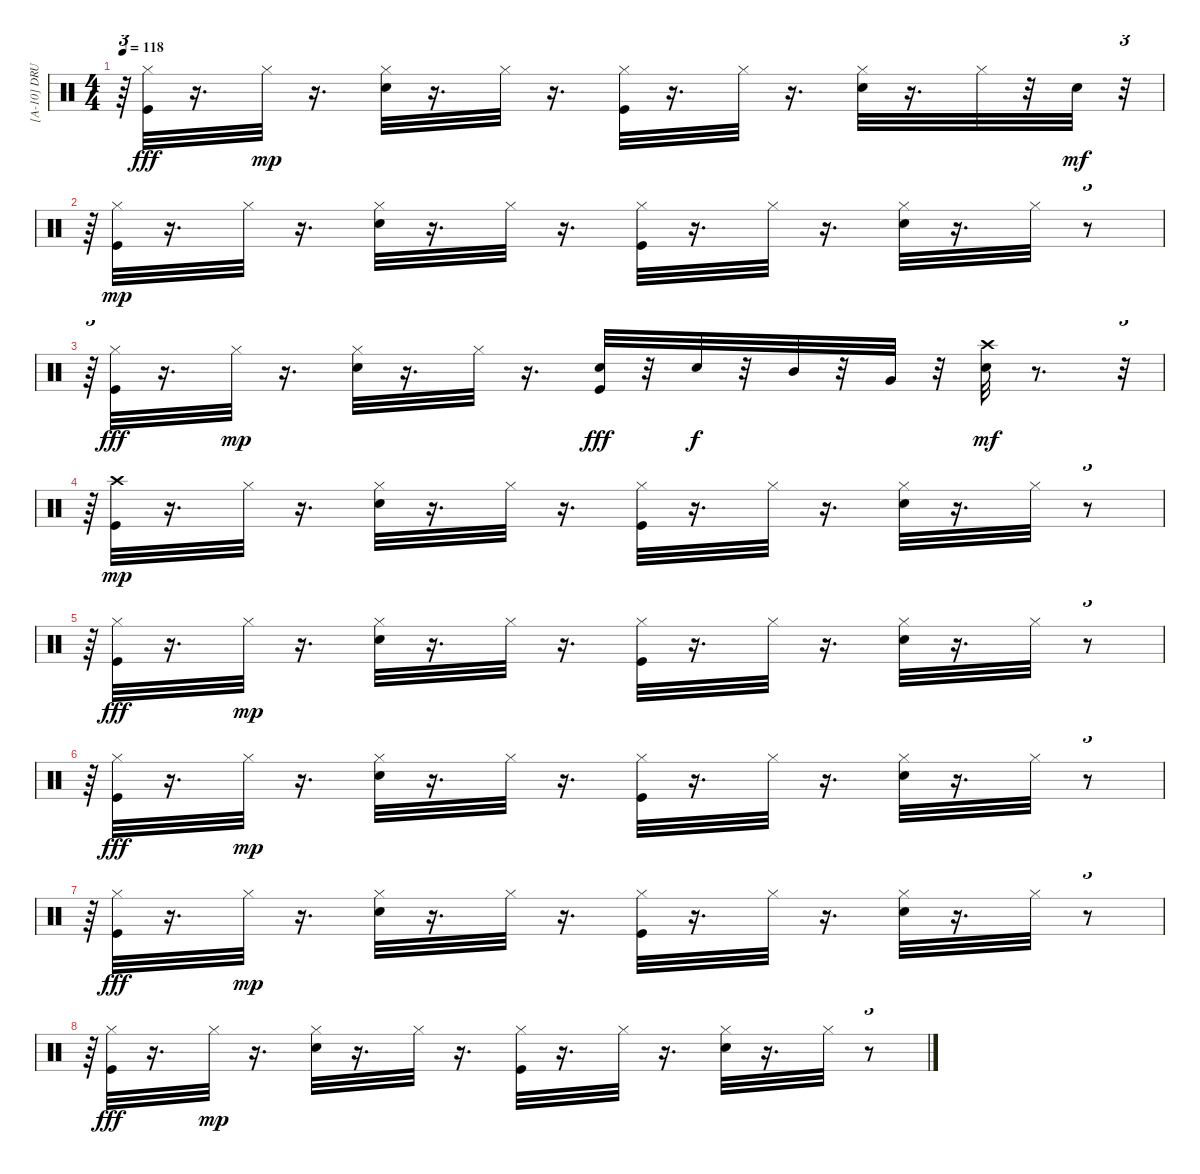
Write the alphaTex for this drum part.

\track ("[A-10] DRUM" "[A-10] DRU") {instrument percussion}
\staff {score}
\articulation defaults
\ts (4 4)
\tempo 118
\clef neutral
\ks c
r.64{tu (3 2) dy mp} ("Hi-Hat (closed)" "Kick (hit)").32{dy fff} r.16{d} "Hi-Hat (closed)".32{dy mp} r.16{d} ("Snare (hit) 2" "Hi-Hat (closed)").32 r.16{d} "Hi-Hat (closed)".32 r.16{d} ("Kick (hit)" "Hi-Hat (closed)").32 r.16{d} "Hi-Hat (closed)".32 r.16{d} ("Snare (hit) 2" "Hi-Hat (closed)").32 r.16{d} "Hi-Hat (closed)".32 r.32 "Snare (hit) 2".32{dy mf} r.32{tu (3 2)} |
r.64{tu (3 2)} ("Kick (hit)" "Hi-Hat (closed)").32{dy mp} r.16{d} "Hi-Hat (closed)".32 r.16{d} ("Snare (hit) 2" "Hi-Hat (closed)").32 r.16{d} "Hi-Hat (closed)".32 r.16{d} ("Kick (hit)" "Hi-Hat (closed)").32 r.16{d} "Hi-Hat (closed)".32 r.16{d} ("Snare (hit) 2" "Hi-Hat (closed)").32 r.16{d} "Hi-Hat (closed)".32 r.8{tu (3 2)} |
r.64{tu (3 2)} ("Hi-Hat (closed)" "Kick (hit)").32{dy fff} r.16{d} "Hi-Hat (closed)".32{dy mp} r.16{d} ("Snare (hit) 2" "Hi-Hat (closed)").32 r.16{d} "Hi-Hat (closed)".32 r.16{d} ("Snare (hit) 2" "Kick (hit)").32{dy fff} r.32 "Snare (hit) 2".32{dy f} r.32 "Mid Tom (hit)".32 r.32 "Very Low Tom (hit)".32 r.32 ("Snare (hit) 2" "Crash high (hit)").32{dy mf} r.8{d} r.32{tu (3 2)} |
r.64{tu (3 2)} ("Kick (hit)" "Crash high (hit)").32{dy mp} r.16{d} "Hi-Hat (closed)".32 r.16{d} ("Snare (hit) 2" "Hi-Hat (closed)").32 r.16{d} "Hi-Hat (closed)".32 r.16{d} ("Kick (hit)" "Hi-Hat (closed)").32 r.16{d} "Hi-Hat (closed)".32 r.16{d} ("Snare (hit) 2" "Hi-Hat (closed)").32 r.16{d} "Hi-Hat (closed)".32 r.8{tu (3 2)} |
r.64{tu (3 2)} ("Hi-Hat (closed)" "Kick (hit)").32{dy fff} r.16{d} "Hi-Hat (closed)".32{dy mp} r.16{d} ("Snare (hit) 2" "Hi-Hat (closed)").32 r.16{d} "Hi-Hat (closed)".32 r.16{d} ("Kick (hit)" "Hi-Hat (closed)").32 r.16{d} "Hi-Hat (closed)".32 r.16{d} ("Snare (hit) 2" "Hi-Hat (closed)").32 r.16{d} "Hi-Hat (closed)".32 r.8{tu (3 2)} |
r.64{tu (3 2)} ("Hi-Hat (closed)" "Kick (hit)").32{dy fff} r.16{d} "Hi-Hat (closed)".32{dy mp} r.16{d} ("Snare (hit) 2" "Hi-Hat (closed)").32 r.16{d} "Hi-Hat (closed)".32 r.16{d} ("Kick (hit)" "Hi-Hat (closed)").32 r.16{d} "Hi-Hat (closed)".32 r.16{d} ("Snare (hit) 2" "Hi-Hat (closed)").32 r.16{d} "Hi-Hat (closed)".32 r.8{tu (3 2)} |
r.64{tu (3 2)} ("Hi-Hat (closed)" "Kick (hit)").32{dy fff} r.16{d} "Hi-Hat (closed)".32{dy mp} r.16{d} ("Snare (hit) 2" "Hi-Hat (closed)").32 r.16{d} "Hi-Hat (closed)".32 r.16{d} ("Kick (hit)" "Hi-Hat (closed)").32 r.16{d} "Hi-Hat (closed)".32 r.16{d} ("Snare (hit) 2" "Hi-Hat (closed)").32 r.16{d} "Hi-Hat (closed)".32 r.8{tu (3 2)} |
r.64{tu (3 2)} ("Hi-Hat (closed)" "Kick (hit)").32{dy fff} r.16{d} "Hi-Hat (closed)".32{dy mp} r.16{d} ("Snare (hit) 2" "Hi-Hat (closed)").32 r.16{d} "Hi-Hat (closed)".32 r.16{d} ("Kick (hit)" "Hi-Hat (closed)").32 r.16{d} "Hi-Hat (closed)".32 r.16{d} ("Snare (hit) 2" "Hi-Hat (closed)").32 r.16{d} "Hi-Hat (closed)".32 r.8{tu (3 2)}
